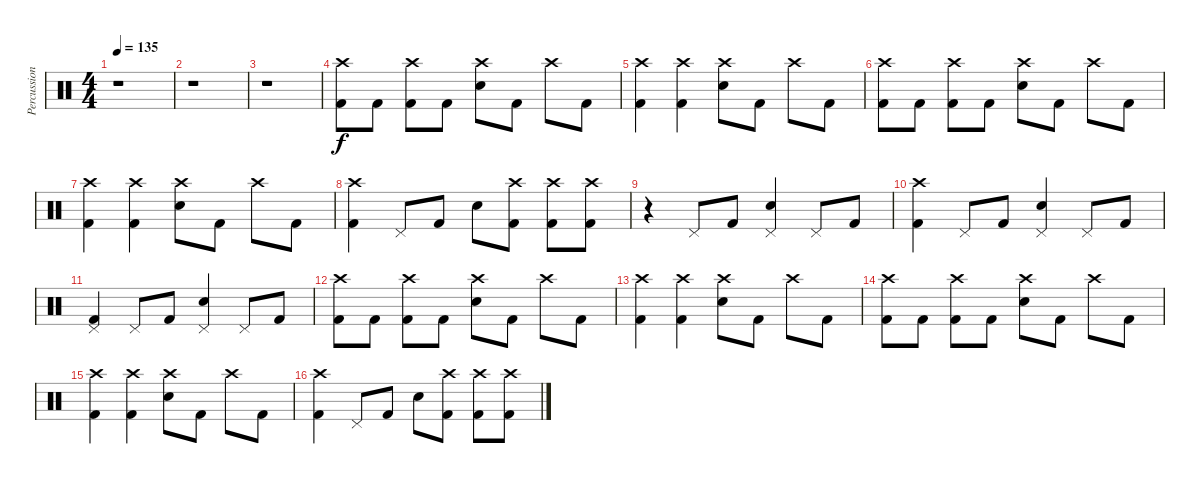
\track ("Percussions" "Percussion") {instrument percussion}
\staff {score}
\articulation defaults
\ts (4 4)
\tempo 135
\clef neutral
\ks c
r.1{dy f} |
r.1 |
r.1 |
("Crash high (hit)" "Kick (hit) 2").8 "Kick (hit) 2".8 ("Crash high (hit)" "Kick (hit) 2").8 "Kick (hit) 2".8 ("Crash high (hit)" "Snare (hit) 2").8 "Kick (hit) 2".8 "Crash high (hit)".8 "Kick (hit) 2".8 |
("Crash high (hit)" "Kick (hit) 2").4 ("Crash high (hit)" "Kick (hit) 2").4 ("Crash high (hit)" "Snare (hit) 2").8 "Kick (hit) 2".8 "Crash high (hit)".8 "Kick (hit) 2".8 |
("Crash high (hit)" "Kick (hit) 2").8 "Kick (hit) 2".8 ("Crash high (hit)" "Kick (hit) 2").8 "Kick (hit) 2".8 ("Crash high (hit)" "Snare (hit) 2").8 "Kick (hit) 2".8 "Crash high (hit)".8 "Kick (hit) 2".8 |
("Crash high (hit)" "Kick (hit) 2").4 ("Crash high (hit)" "Kick (hit) 2").4 ("Crash high (hit)" "Snare (hit) 2").8 "Kick (hit) 2".8 "Crash high (hit)".8 "Kick (hit) 2".8 |
("Crash high (hit)" "Kick (hit) 2").4 "Pedal Hi-Hat (hit)".8 "Kick (hit) 2".8 "Snare (hit) 2".8 ("Crash high (hit)" "Kick (hit) 2").8 ("Crash high (hit)" "Kick (hit) 2").8 ("Crash high (hit)" "Kick (hit) 2").8 |
r.4 "Pedal Hi-Hat (hit)".8 "Kick (hit) 2".8 ("Pedal Hi-Hat (hit)" "Snare (hit) 2").4 "Pedal Hi-Hat (hit)".8 "Kick (hit) 2".8 |
("Crash high (hit)" "Kick (hit) 2").4 "Pedal Hi-Hat (hit)".8 "Kick (hit) 2".8 ("Pedal Hi-Hat (hit)" "Snare (hit) 2").4 "Pedal Hi-Hat (hit)".8 "Kick (hit) 2".8 |
("Pedal Hi-Hat (hit)" "Kick (hit) 2").4 "Pedal Hi-Hat (hit)".8 "Kick (hit) 2".8 ("Pedal Hi-Hat (hit)" "Snare (hit) 2").4 "Pedal Hi-Hat (hit)".8 "Kick (hit) 2".8 |
("Crash high (hit)" "Kick (hit) 2").8 "Kick (hit) 2".8 ("Crash high (hit)" "Kick (hit) 2").8 "Kick (hit) 2".8 ("Crash high (hit)" "Snare (hit) 2").8 "Kick (hit) 2".8 "Crash high (hit)".8 "Kick (hit) 2".8 |
("Crash high (hit)" "Kick (hit) 2").4 ("Crash high (hit)" "Kick (hit) 2").4 ("Crash high (hit)" "Snare (hit) 2").8 "Kick (hit) 2".8 "Crash high (hit)".8 "Kick (hit) 2".8 |
("Crash high (hit)" "Kick (hit) 2").8 "Kick (hit) 2".8 ("Crash high (hit)" "Kick (hit) 2").8 "Kick (hit) 2".8 ("Crash high (hit)" "Snare (hit) 2").8 "Kick (hit) 2".8 "Crash high (hit)".8 "Kick (hit) 2".8 |
("Crash high (hit)" "Kick (hit) 2").4 ("Crash high (hit)" "Kick (hit) 2").4 ("Crash high (hit)" "Snare (hit) 2").8 "Kick (hit) 2".8 "Crash high (hit)".8 "Kick (hit) 2".8 |
("Crash high (hit)" "Kick (hit) 2").4 "Pedal Hi-Hat (hit)".8 "Kick (hit) 2".8 "Snare (hit) 2".8 ("Crash high (hit)" "Kick (hit) 2").8 ("Crash high (hit)" "Kick (hit) 2").8 ("Crash high (hit)" "Kick (hit) 2").8
